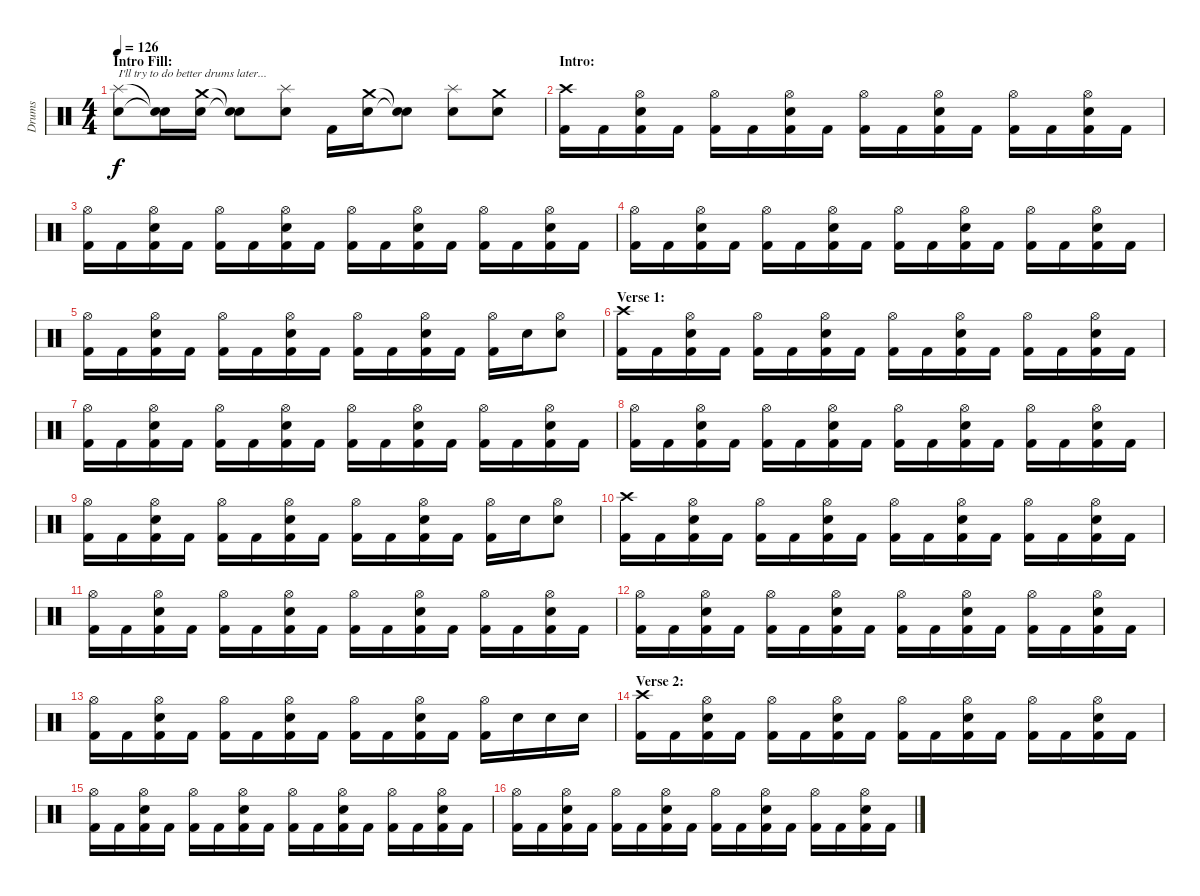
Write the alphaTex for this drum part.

\track ("Drums" "Drums") {instrument percussion}
\staff {score}
\articulation defaults
\ts (4 4)
\section ("" "Intro Fill:")
\tempo 126
\clef neutral
\ks c
("Splash (hit)" "Snare (hit) 2").8{txt "I'll try to do better drums later..." dy f} ("Snare (hit)"{t} "Snare (hit)"{t}).16 ("Crash medium (hit)" "Snare (hit) 2").16 ("Snare (hit)"{t} "Snare (hit)"{t}).8 ("Splash (hit)" "Snare (hit) 2").8 "Kick (hit) 2".16 ("Crash medium (hit)" "Snare (hit) 2").16 ("Snare (hit)"{t} "Snare (hit)"{t}).8 ("Splash (hit)" "Snare (hit) 2").8 ("Crash medium (hit)" "Snare (hit) 2").8 |
\section ("" "Intro:")
("Crash high (hit)" "Kick (hit) 2").16 "Kick (hit) 2".16 ("Hi-Hat (open)" "Snare (hit) 2" "Kick (hit) 2").16 "Kick (hit) 2".16 ("Hi-Hat (open)" "Kick (hit) 2").16 "Kick (hit) 2".16 ("Hi-Hat (open)" "Snare (hit) 2" "Kick (hit) 2").16 "Kick (hit) 2".16 ("Hi-Hat (open)" "Kick (hit) 2").16 "Kick (hit) 2".16 ("Hi-Hat (open)" "Snare (hit) 2" "Kick (hit) 2").16 "Kick (hit) 2".16 ("Hi-Hat (open)" "Kick (hit) 2").16 "Kick (hit) 2".16 ("Hi-Hat (open)" "Snare (hit) 2" "Kick (hit) 2").16 "Kick (hit) 2".16 |
("Hi-Hat (open)" "Kick (hit) 2").16 "Kick (hit) 2".16 ("Hi-Hat (open)" "Snare (hit) 2" "Kick (hit) 2").16 "Kick (hit) 2".16 ("Hi-Hat (open)" "Kick (hit) 2").16 "Kick (hit) 2".16 ("Hi-Hat (open)" "Snare (hit) 2" "Kick (hit) 2").16 "Kick (hit) 2".16 ("Hi-Hat (open)" "Kick (hit) 2").16 "Kick (hit) 2".16 ("Hi-Hat (open)" "Snare (hit) 2" "Kick (hit) 2").16 "Kick (hit) 2".16 ("Hi-Hat (open)" "Kick (hit) 2").16 "Kick (hit) 2".16 ("Hi-Hat (open)" "Snare (hit) 2" "Kick (hit) 2").16 "Kick (hit) 2".16 |
("Hi-Hat (open)" "Kick (hit) 2").16 "Kick (hit) 2".16 ("Hi-Hat (open)" "Snare (hit) 2" "Kick (hit) 2").16 "Kick (hit) 2".16 ("Hi-Hat (open)" "Kick (hit) 2").16 "Kick (hit) 2".16 ("Hi-Hat (open)" "Snare (hit) 2" "Kick (hit) 2").16 "Kick (hit) 2".16 ("Hi-Hat (open)" "Kick (hit) 2").16 "Kick (hit) 2".16 ("Hi-Hat (open)" "Snare (hit) 2" "Kick (hit) 2").16 "Kick (hit) 2".16 ("Hi-Hat (open)" "Kick (hit) 2").16 "Kick (hit) 2".16 ("Hi-Hat (open)" "Snare (hit) 2" "Kick (hit) 2").16 "Kick (hit) 2".16 |
("Hi-Hat (open)" "Kick (hit) 2").16 "Kick (hit) 2".16 ("Hi-Hat (open)" "Snare (hit) 2" "Kick (hit) 2").16 "Kick (hit) 2".16 ("Hi-Hat (open)" "Kick (hit) 2").16 "Kick (hit) 2".16 ("Hi-Hat (open)" "Snare (hit) 2" "Kick (hit) 2").16 "Kick (hit) 2".16 ("Hi-Hat (open)" "Kick (hit) 2").16 "Kick (hit) 2".16 ("Hi-Hat (open)" "Snare (hit) 2" "Kick (hit) 2").16 "Kick (hit) 2".16 ("Hi-Hat (open)" "Kick (hit) 2").16 "Snare (hit) 2".16 ("Hi-Hat (open)" "Snare (hit) 2").8 |
\section ("" "Verse 1:")
("Crash high (hit)" "Kick (hit) 2").16 "Kick (hit) 2".16 ("Hi-Hat (open)" "Snare (hit) 2" "Kick (hit) 2").16 "Kick (hit) 2".16 ("Hi-Hat (open)" "Kick (hit) 2").16 "Kick (hit) 2".16 ("Hi-Hat (open)" "Snare (hit) 2" "Kick (hit) 2").16 "Kick (hit) 2".16 ("Hi-Hat (open)" "Kick (hit) 2").16 "Kick (hit) 2".16 ("Hi-Hat (open)" "Snare (hit) 2" "Kick (hit) 2").16 "Kick (hit) 2".16 ("Hi-Hat (open)" "Kick (hit) 2").16 "Kick (hit) 2".16 ("Hi-Hat (open)" "Snare (hit) 2" "Kick (hit) 2").16 "Kick (hit) 2".16 |
("Hi-Hat (open)" "Kick (hit) 2").16 "Kick (hit) 2".16 ("Hi-Hat (open)" "Snare (hit) 2" "Kick (hit) 2").16 "Kick (hit) 2".16 ("Hi-Hat (open)" "Kick (hit) 2").16 "Kick (hit) 2".16 ("Hi-Hat (open)" "Snare (hit) 2" "Kick (hit) 2").16 "Kick (hit) 2".16 ("Hi-Hat (open)" "Kick (hit) 2").16 "Kick (hit) 2".16 ("Hi-Hat (open)" "Snare (hit) 2" "Kick (hit) 2").16 "Kick (hit) 2".16 ("Hi-Hat (open)" "Kick (hit) 2").16 "Kick (hit) 2".16 ("Hi-Hat (open)" "Snare (hit) 2" "Kick (hit) 2").16 "Kick (hit) 2".16 |
("Hi-Hat (open)" "Kick (hit) 2").16 "Kick (hit) 2".16 ("Hi-Hat (open)" "Snare (hit) 2" "Kick (hit) 2").16 "Kick (hit) 2".16 ("Hi-Hat (open)" "Kick (hit) 2").16 "Kick (hit) 2".16 ("Hi-Hat (open)" "Snare (hit) 2" "Kick (hit) 2").16 "Kick (hit) 2".16 ("Hi-Hat (open)" "Kick (hit) 2").16 "Kick (hit) 2".16 ("Hi-Hat (open)" "Snare (hit) 2" "Kick (hit) 2").16 "Kick (hit) 2".16 ("Hi-Hat (open)" "Kick (hit) 2").16 "Kick (hit) 2".16 ("Hi-Hat (open)" "Snare (hit) 2" "Kick (hit) 2").16 "Kick (hit) 2".16 |
("Hi-Hat (open)" "Kick (hit) 2").16 "Kick (hit) 2".16 ("Hi-Hat (open)" "Snare (hit) 2" "Kick (hit) 2").16 "Kick (hit) 2".16 ("Hi-Hat (open)" "Kick (hit) 2").16 "Kick (hit) 2".16 ("Hi-Hat (open)" "Snare (hit) 2" "Kick (hit) 2").16 "Kick (hit) 2".16 ("Hi-Hat (open)" "Kick (hit) 2").16 "Kick (hit) 2".16 ("Hi-Hat (open)" "Snare (hit) 2" "Kick (hit) 2").16 "Kick (hit) 2".16 ("Hi-Hat (open)" "Kick (hit) 2").16 "Snare (hit) 2".16 ("Hi-Hat (open)" "Snare (hit) 2").8 |
("Crash high (hit)" "Kick (hit) 2").16 "Kick (hit) 2".16 ("Hi-Hat (open)" "Snare (hit) 2" "Kick (hit) 2").16 "Kick (hit) 2".16 ("Hi-Hat (open)" "Kick (hit) 2").16 "Kick (hit) 2".16 ("Hi-Hat (open)" "Snare (hit) 2" "Kick (hit) 2").16 "Kick (hit) 2".16 ("Hi-Hat (open)" "Kick (hit) 2").16 "Kick (hit) 2".16 ("Hi-Hat (open)" "Snare (hit) 2" "Kick (hit) 2").16 "Kick (hit) 2".16 ("Hi-Hat (open)" "Kick (hit) 2").16 "Kick (hit) 2".16 ("Hi-Hat (open)" "Snare (hit) 2" "Kick (hit) 2").16 "Kick (hit) 2".16 |
("Hi-Hat (open)" "Kick (hit) 2").16 "Kick (hit) 2".16 ("Hi-Hat (open)" "Snare (hit) 2" "Kick (hit) 2").16 "Kick (hit) 2".16 ("Hi-Hat (open)" "Kick (hit) 2").16 "Kick (hit) 2".16 ("Hi-Hat (open)" "Snare (hit) 2" "Kick (hit) 2").16 "Kick (hit) 2".16 ("Hi-Hat (open)" "Kick (hit) 2").16 "Kick (hit) 2".16 ("Hi-Hat (open)" "Snare (hit) 2" "Kick (hit) 2").16 "Kick (hit) 2".16 ("Hi-Hat (open)" "Kick (hit) 2").16 "Kick (hit) 2".16 ("Hi-Hat (open)" "Snare (hit) 2" "Kick (hit) 2").16 "Kick (hit) 2".16 |
("Hi-Hat (open)" "Kick (hit) 2").16 "Kick (hit) 2".16 ("Hi-Hat (open)" "Snare (hit) 2" "Kick (hit) 2").16 "Kick (hit) 2".16 ("Hi-Hat (open)" "Kick (hit) 2").16 "Kick (hit) 2".16 ("Hi-Hat (open)" "Snare (hit) 2" "Kick (hit) 2").16 "Kick (hit) 2".16 ("Hi-Hat (open)" "Kick (hit) 2").16 "Kick (hit) 2".16 ("Hi-Hat (open)" "Snare (hit) 2" "Kick (hit) 2").16 "Kick (hit) 2".16 ("Hi-Hat (open)" "Kick (hit) 2").16 "Kick (hit) 2".16 ("Hi-Hat (open)" "Snare (hit) 2" "Kick (hit) 2").16 "Kick (hit) 2".16 |
("Hi-Hat (open)" "Kick (hit) 2").16 "Kick (hit) 2".16 ("Hi-Hat (open)" "Snare (hit) 2" "Kick (hit) 2").16 "Kick (hit) 2".16 ("Hi-Hat (open)" "Kick (hit) 2").16 "Kick (hit) 2".16 ("Hi-Hat (open)" "Snare (hit) 2" "Kick (hit) 2").16 "Kick (hit) 2".16 ("Hi-Hat (open)" "Kick (hit) 2").16 "Kick (hit) 2".16 ("Hi-Hat (open)" "Snare (hit) 2" "Kick (hit) 2").16 "Kick (hit) 2".16 ("Hi-Hat (open)" "Kick (hit) 2").16 "Snare (hit) 2".16 "Snare (hit) 2".16 "Snare (hit) 2".16 |
\section ("" "Verse 2:")
("Crash high (hit)" "Kick (hit) 2").16 "Kick (hit) 2".16 ("Hi-Hat (open)" "Snare (hit) 2" "Kick (hit) 2").16 "Kick (hit) 2".16 ("Hi-Hat (open)" "Kick (hit) 2").16 "Kick (hit) 2".16 ("Hi-Hat (open)" "Snare (hit) 2" "Kick (hit) 2").16 "Kick (hit) 2".16 ("Hi-Hat (open)" "Kick (hit) 2").16 "Kick (hit) 2".16 ("Hi-Hat (open)" "Snare (hit) 2" "Kick (hit) 2").16 "Kick (hit) 2".16 ("Hi-Hat (open)" "Kick (hit) 2").16 "Kick (hit) 2".16 ("Hi-Hat (open)" "Snare (hit) 2" "Kick (hit) 2").16 "Kick (hit) 2".16 |
("Hi-Hat (open)" "Kick (hit) 2").16 "Kick (hit) 2".16 ("Hi-Hat (open)" "Snare (hit) 2" "Kick (hit) 2").16 "Kick (hit) 2".16 ("Hi-Hat (open)" "Kick (hit) 2").16 "Kick (hit) 2".16 ("Hi-Hat (open)" "Snare (hit) 2" "Kick (hit) 2").16 "Kick (hit) 2".16 ("Hi-Hat (open)" "Kick (hit) 2").16 "Kick (hit) 2".16 ("Hi-Hat (open)" "Snare (hit) 2" "Kick (hit) 2").16 "Kick (hit) 2".16 ("Hi-Hat (open)" "Kick (hit) 2").16 "Kick (hit) 2".16 ("Hi-Hat (open)" "Snare (hit) 2" "Kick (hit) 2").16 "Kick (hit) 2".16 |
("Hi-Hat (open)" "Kick (hit) 2").16 "Kick (hit) 2".16 ("Hi-Hat (open)" "Snare (hit) 2" "Kick (hit) 2").16 "Kick (hit) 2".16 ("Hi-Hat (open)" "Kick (hit) 2").16 "Kick (hit) 2".16 ("Hi-Hat (open)" "Snare (hit) 2" "Kick (hit) 2").16 "Kick (hit) 2".16 ("Hi-Hat (open)" "Kick (hit) 2").16 "Kick (hit) 2".16 ("Hi-Hat (open)" "Snare (hit) 2" "Kick (hit) 2").16 "Kick (hit) 2".16 ("Hi-Hat (open)" "Kick (hit) 2").16 "Kick (hit) 2".16 ("Hi-Hat (open)" "Snare (hit) 2" "Kick (hit) 2").16 "Kick (hit) 2".16
